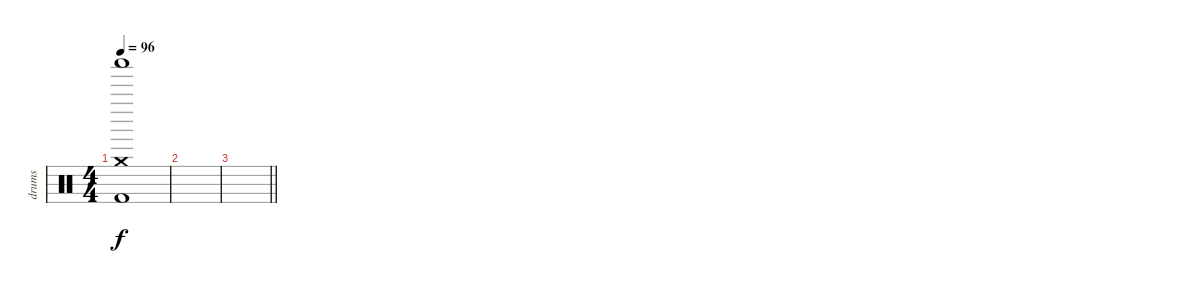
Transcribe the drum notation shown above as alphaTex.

\track ("drums" "drums") {instrument percussion}
\staff {score}
\articulation defaults
\ts (4 4)
\tempo 96
\clef neutral
\ks c
("Shaker (hit)" "Kick (hit) 2" "Crash medium (hit)").1{dy f} |
|
\barLineRight lightlight
